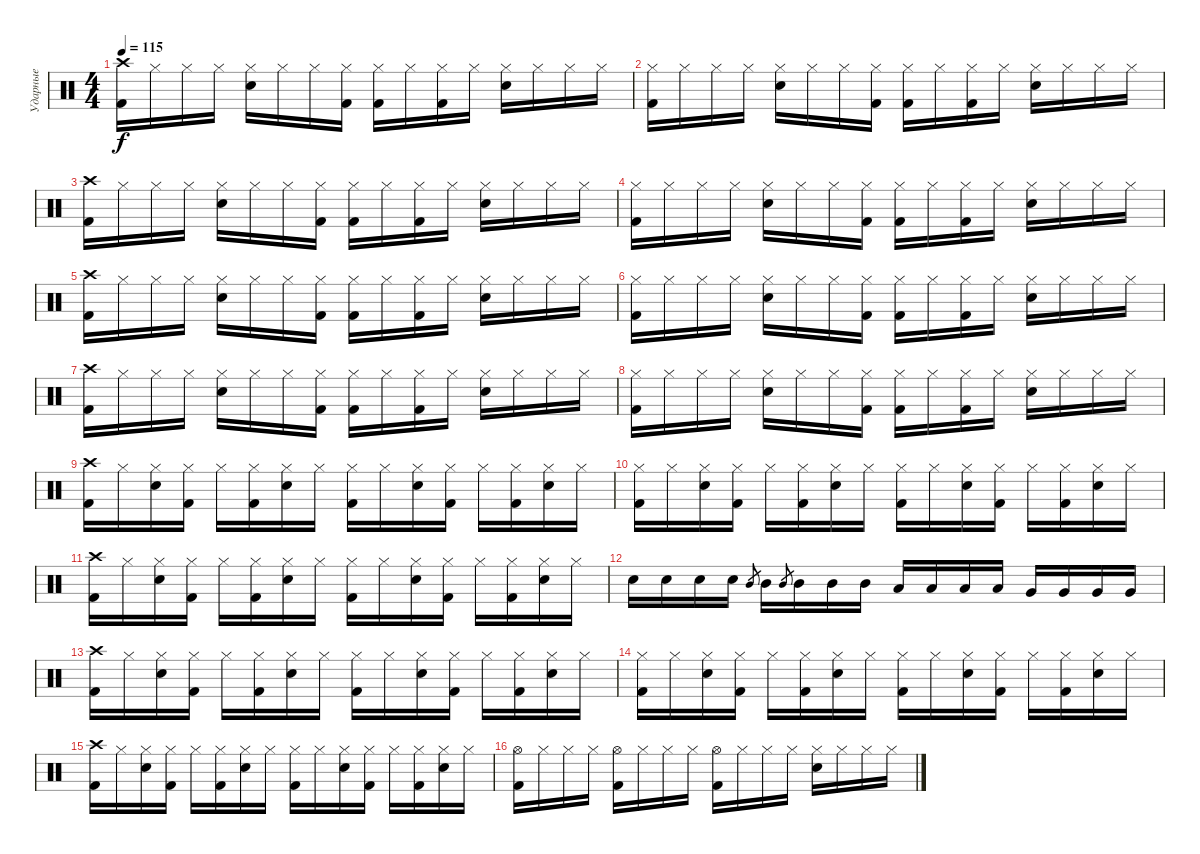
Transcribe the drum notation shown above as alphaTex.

\track ("Ударные" "Ударные") {instrument percussion}
\staff {score}
\articulation defaults
\ts (4 4)
\tempo 115
\clef neutral
\ks c
("Kick (hit) 2" "Crash high (hit)").16{dy f} "Hi-Hat (closed)".16 "Hi-Hat (closed)".16 "Hi-Hat (closed)".16 ("Electric Snare (hit)" "Hi-Hat (closed)").16 "Hi-Hat (closed)".16 "Hi-Hat (closed)".16 ("Kick (hit) 2" "Hi-Hat (closed)").16 ("Kick (hit) 2" "Hi-Hat (closed)").16 "Hi-Hat (closed)".16 ("Kick (hit) 2" "Hi-Hat (closed)").16 "Hi-Hat (closed)".16 ("Electric Snare (hit)" "Hi-Hat (closed)").16 "Hi-Hat (closed)".16 "Hi-Hat (closed)".16 "Hi-Hat (closed)".16 |
("Kick (hit) 2" "Hi-Hat (closed)").16 "Hi-Hat (closed)".16 "Hi-Hat (closed)".16 "Hi-Hat (closed)".16 ("Electric Snare (hit)" "Hi-Hat (closed)").16 "Hi-Hat (closed)".16 "Hi-Hat (closed)".16 ("Kick (hit) 2" "Hi-Hat (closed)").16 ("Kick (hit) 2" "Hi-Hat (closed)").16 "Hi-Hat (closed)".16 ("Kick (hit) 2" "Hi-Hat (closed)").16 "Hi-Hat (closed)".16 ("Electric Snare (hit)" "Hi-Hat (closed)").16 "Hi-Hat (closed)".16 "Hi-Hat (closed)".16 "Hi-Hat (closed)".16 |
("Kick (hit) 2" "Crash high (hit)").16 "Hi-Hat (closed)".16 "Hi-Hat (closed)".16 "Hi-Hat (closed)".16 ("Electric Snare (hit)" "Hi-Hat (closed)").16 "Hi-Hat (closed)".16 "Hi-Hat (closed)".16 ("Kick (hit) 2" "Hi-Hat (closed)").16 ("Kick (hit) 2" "Hi-Hat (closed)").16 "Hi-Hat (closed)".16 ("Kick (hit) 2" "Hi-Hat (closed)").16 "Hi-Hat (closed)".16 ("Electric Snare (hit)" "Hi-Hat (closed)").16 "Hi-Hat (closed)".16 "Hi-Hat (closed)".16 "Hi-Hat (closed)".16 |
("Kick (hit) 2" "Hi-Hat (closed)").16 "Hi-Hat (closed)".16 "Hi-Hat (closed)".16 "Hi-Hat (closed)".16 ("Electric Snare (hit)" "Hi-Hat (closed)").16 "Hi-Hat (closed)".16 "Hi-Hat (closed)".16 ("Kick (hit) 2" "Hi-Hat (closed)").16 ("Kick (hit) 2" "Hi-Hat (closed)").16 "Hi-Hat (closed)".16 ("Kick (hit) 2" "Hi-Hat (closed)").16 "Hi-Hat (closed)".16 ("Electric Snare (hit)" "Hi-Hat (closed)").16 "Hi-Hat (closed)".16 "Hi-Hat (closed)".16 "Hi-Hat (closed)".16 |
("Kick (hit) 2" "Crash high (hit)").16 "Hi-Hat (closed)".16 "Hi-Hat (closed)".16 "Hi-Hat (closed)".16 ("Electric Snare (hit)" "Hi-Hat (closed)").16 "Hi-Hat (closed)".16 "Hi-Hat (closed)".16 ("Kick (hit) 2" "Hi-Hat (closed)").16 ("Kick (hit) 2" "Hi-Hat (closed)").16 "Hi-Hat (closed)".16 ("Kick (hit) 2" "Hi-Hat (closed)").16 "Hi-Hat (closed)".16 ("Electric Snare (hit)" "Hi-Hat (closed)").16 "Hi-Hat (closed)".16 "Hi-Hat (closed)".16 "Hi-Hat (closed)".16 |
("Kick (hit) 2" "Hi-Hat (closed)").16 "Hi-Hat (closed)".16 "Hi-Hat (closed)".16 "Hi-Hat (closed)".16 ("Electric Snare (hit)" "Hi-Hat (closed)").16 "Hi-Hat (closed)".16 "Hi-Hat (closed)".16 ("Kick (hit) 2" "Hi-Hat (closed)").16 ("Kick (hit) 2" "Hi-Hat (closed)").16 "Hi-Hat (closed)".16 ("Kick (hit) 2" "Hi-Hat (closed)").16 "Hi-Hat (closed)".16 ("Electric Snare (hit)" "Hi-Hat (closed)").16 "Hi-Hat (closed)".16 "Hi-Hat (closed)".16 "Hi-Hat (closed)".16 |
("Kick (hit) 2" "Crash high (hit)").16 "Hi-Hat (closed)".16 "Hi-Hat (closed)".16 "Hi-Hat (closed)".16 ("Electric Snare (hit)" "Hi-Hat (closed)").16 "Hi-Hat (closed)".16 "Hi-Hat (closed)".16 ("Kick (hit) 2" "Hi-Hat (closed)").16 ("Kick (hit) 2" "Hi-Hat (closed)").16 "Hi-Hat (closed)".16 ("Kick (hit) 2" "Hi-Hat (closed)").16 "Hi-Hat (closed)".16 ("Electric Snare (hit)" "Hi-Hat (closed)").16 "Hi-Hat (closed)".16 "Hi-Hat (closed)".16 "Hi-Hat (closed)".16 |
("Kick (hit) 2" "Hi-Hat (closed)").16 "Hi-Hat (closed)".16 "Hi-Hat (closed)".16 "Hi-Hat (closed)".16 ("Electric Snare (hit)" "Hi-Hat (closed)").16 "Hi-Hat (closed)".16 "Hi-Hat (closed)".16 ("Kick (hit) 2" "Hi-Hat (closed)").16 ("Kick (hit) 2" "Hi-Hat (closed)").16 "Hi-Hat (closed)".16 ("Kick (hit) 2" "Hi-Hat (closed)").16 "Hi-Hat (closed)".16 ("Electric Snare (hit)" "Hi-Hat (closed)").16 "Hi-Hat (closed)".16 "Hi-Hat (closed)".16 "Hi-Hat (closed)".16 |
("Kick (hit) 2" "Crash high (hit)").16 "Hi-Hat (closed)".16 ("Electric Snare (hit)" "Hi-Hat (closed)").16 ("Kick (hit) 2" "Hi-Hat (closed)").16 "Hi-Hat (closed)".16 ("Kick (hit) 2" "Hi-Hat (closed)").16 ("Electric Snare (hit)" "Hi-Hat (closed)").16 "Hi-Hat (closed)".16 ("Kick (hit) 2" "Hi-Hat (closed)").16 "Hi-Hat (closed)".16 ("Electric Snare (hit)" "Hi-Hat (closed)").16 ("Kick (hit) 2" "Hi-Hat (closed)").16 "Hi-Hat (closed)".16 ("Kick (hit) 2" "Hi-Hat (closed)").16 ("Electric Snare (hit)" "Hi-Hat (closed)").16 "Hi-Hat (closed)".16 |
("Kick (hit) 2" "Hi-Hat (closed)").16 "Hi-Hat (closed)".16 ("Electric Snare (hit)" "Hi-Hat (closed)").16 ("Kick (hit) 2" "Hi-Hat (closed)").16 "Hi-Hat (closed)".16 ("Kick (hit) 2" "Hi-Hat (closed)").16 ("Electric Snare (hit)" "Hi-Hat (closed)").16 "Hi-Hat (closed)".16 ("Kick (hit) 2" "Hi-Hat (closed)").16 "Hi-Hat (closed)".16 ("Electric Snare (hit)" "Hi-Hat (closed)").16 ("Kick (hit) 2" "Hi-Hat (closed)").16 "Hi-Hat (closed)".16 ("Kick (hit) 2" "Hi-Hat (closed)").16 ("Electric Snare (hit)" "Hi-Hat (closed)").16 "Hi-Hat (closed)".16 |
("Kick (hit) 2" "Crash high (hit)").16 "Hi-Hat (closed)".16 ("Electric Snare (hit)" "Hi-Hat (closed)").16 ("Kick (hit) 2" "Hi-Hat (closed)").16 "Hi-Hat (closed)".16 ("Kick (hit) 2" "Hi-Hat (closed)").16 ("Electric Snare (hit)" "Hi-Hat (closed)").16 "Hi-Hat (closed)".16 ("Kick (hit) 2" "Hi-Hat (closed)").16 "Hi-Hat (closed)".16 ("Electric Snare (hit)" "Hi-Hat (closed)").16 ("Kick (hit) 2" "Hi-Hat (closed)").16 "Hi-Hat (closed)".16 ("Kick (hit) 2" "Hi-Hat (closed)").16 ("Electric Snare (hit)" "Hi-Hat (closed)").16 "Hi-Hat (closed)".16 |
"Electric Snare (hit)".16 "Electric Snare (hit)".16 "Electric Snare (hit)".16 "Electric Snare (hit)".16 "Mid Tom (hit)".8{gr} "Mid Tom (hit)".16 "Mid Tom (hit)".8{gr} "Mid Tom (hit)".16 "Mid Tom (hit)".16 "Mid Tom (hit)".16 "Low Tom (hit)".16 "Low Tom (hit)".16 "Low Tom (hit)".16 "Low Tom (hit)".16 "Very Low Tom (hit)".16 "Very Low Tom (hit)".16 "Very Low Tom (hit)".16 "Very Low Tom (hit)".16 |
("Kick (hit) 2" "Crash high (hit)").16 "Hi-Hat (closed)".16 ("Electric Snare (hit)" "Hi-Hat (closed)").16 ("Kick (hit) 2" "Hi-Hat (closed)").16 "Hi-Hat (closed)".16 ("Kick (hit) 2" "Hi-Hat (closed)").16 ("Electric Snare (hit)" "Hi-Hat (closed)").16 "Hi-Hat (closed)".16 ("Kick (hit) 2" "Hi-Hat (closed)").16 "Hi-Hat (closed)".16 ("Electric Snare (hit)" "Hi-Hat (closed)").16 ("Kick (hit) 2" "Hi-Hat (closed)").16 "Hi-Hat (closed)".16 ("Kick (hit) 2" "Hi-Hat (closed)").16 ("Electric Snare (hit)" "Hi-Hat (closed)").16 "Hi-Hat (closed)".16 |
("Kick (hit) 2" "Hi-Hat (closed)").16 "Hi-Hat (closed)".16 ("Electric Snare (hit)" "Hi-Hat (closed)").16 ("Kick (hit) 2" "Hi-Hat (closed)").16 "Hi-Hat (closed)".16 ("Kick (hit) 2" "Hi-Hat (closed)").16 ("Electric Snare (hit)" "Hi-Hat (closed)").16 "Hi-Hat (closed)".16 ("Kick (hit) 2" "Hi-Hat (closed)").16 "Hi-Hat (closed)".16 ("Electric Snare (hit)" "Hi-Hat (closed)").16 ("Kick (hit) 2" "Hi-Hat (closed)").16 "Hi-Hat (closed)".16 ("Kick (hit) 2" "Hi-Hat (closed)").16 ("Electric Snare (hit)" "Hi-Hat (closed)").16 "Hi-Hat (closed)".16 |
("Kick (hit) 2" "Crash high (hit)").16 "Hi-Hat (closed)".16 ("Electric Snare (hit)" "Hi-Hat (closed)").16 ("Kick (hit) 2" "Hi-Hat (closed)").16 "Hi-Hat (closed)".16 ("Kick (hit) 2" "Hi-Hat (closed)").16 ("Electric Snare (hit)" "Hi-Hat (closed)").16 "Hi-Hat (closed)".16 ("Kick (hit) 2" "Hi-Hat (closed)").16 "Hi-Hat (closed)".16 ("Electric Snare (hit)" "Hi-Hat (closed)").16 ("Kick (hit) 2" "Hi-Hat (closed)").16 "Hi-Hat (closed)".16 ("Kick (hit) 2" "Hi-Hat (closed)").16 ("Electric Snare (hit)" "Hi-Hat (closed)").16 "Hi-Hat (closed)".16 |
("Kick (hit) 2" "Hi-Hat (open)").16 "Hi-Hat (closed)".16 "Hi-Hat (closed)".16 "Hi-Hat (closed)".16 ("Kick (hit) 2" "Hi-Hat (open)").16 "Hi-Hat (closed)".16 "Hi-Hat (closed)".16 "Hi-Hat (closed)".16 ("Kick (hit) 2" "Hi-Hat (open)").16 "Hi-Hat (closed)".16 "Hi-Hat (closed)".16 "Hi-Hat (closed)".16 ("Electric Snare (hit)" "Hi-Hat (closed)").16 "Hi-Hat (closed)".16 "Hi-Hat (closed)".16 "Hi-Hat (closed)".16
